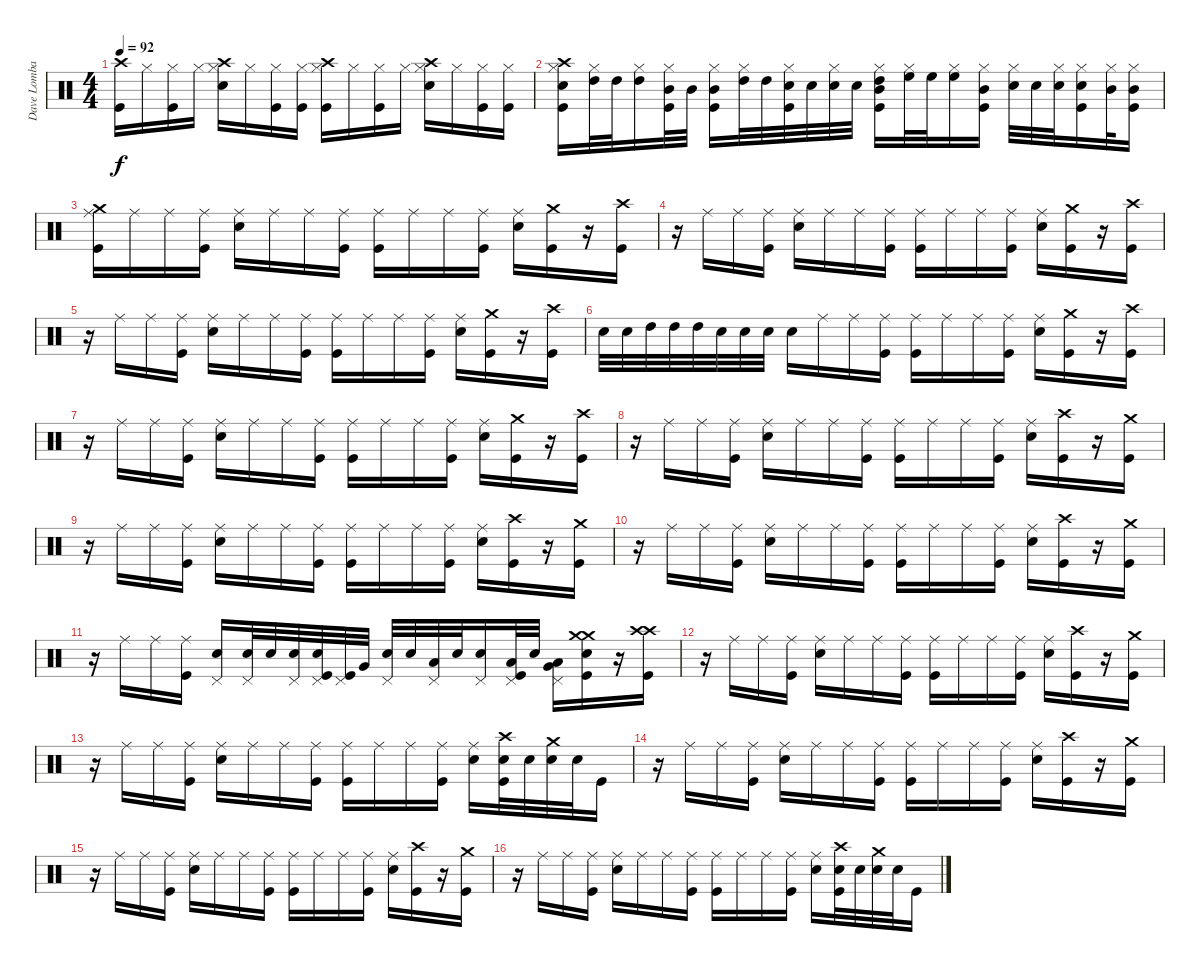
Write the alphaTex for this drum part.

\track ("Dave Lombardo" "Dave Lomba") {instrument percussion}
\staff {score}
\articulation defaults
\ts (4 4)
\tempo 92
\clef neutral
\ks c
("Crash high (hit)" "Kick (hit)").16{dy f} "Hi-Hat (closed)".16 ("Hi-Hat (closed)" "Kick (hit)").16 "Hi-Hat (closed)".16 ("Crash high (hit)" "Hi-Hat (closed)" "Snare (hit) 2").16 "Hi-Hat (closed)".16 ("Hi-Hat (closed)" "Kick (hit)").16 ("Hi-Hat (closed)" "Kick (hit)").16 ("Crash high (hit)" "Hi-Hat (closed)" "Kick (hit)").16 "Hi-Hat (closed)".16 ("Hi-Hat (closed)" "Kick (hit)").16 "Hi-Hat (closed)".16 ("Crash high (hit)" "Hi-Hat (closed)" "Snare (hit) 2").16 "Hi-Hat (closed)".16 ("Hi-Hat (closed)" "Kick (hit)").16 ("Hi-Hat (closed)" "Kick (hit)").16 |
("Crash high (hit)" "Hi-Hat (closed)" "Kick (hit)" "Snare (hit) 2").16 ("Hi-Hat (closed)" "High Tom (hit)").32 "High Tom (hit)".32 ("Hi-Hat (closed)" "High Tom (hit)").16 ("Hi-Hat (closed)" "Kick (hit)" "Mid Tom (hit)").32 "Mid Tom (hit)".32 ("Hi-Hat (closed)" "Kick (hit)" "Mid Tom (hit)").16 ("Hi-Hat (closed)" "High Tom (hit)").32 "High Tom (hit)".32 ("Hi-Hat (closed)" "Kick (hit)" "Snare (hit) 2").32 "Snare (hit) 2".32 ("Hi-Hat (closed)" "Snare (hit) 2").32 "Snare (hit) 2".32 ("Hi-Hat (closed)" "Kick (hit)" "Mid Tom (hit)" "High Tom (hit)").16 ("Hi-Hat (closed)" "High Floor Tom (hit)").32 "High Floor Tom (hit)".32 ("Hi-Hat (closed)" "High Floor Tom (hit)").16 ("Hi-Hat (closed)" "Kick (hit)" "Mid Tom (hit)").16 ("Hi-Hat (closed)" "Snare (hit) 2").32 "Snare (hit) 2".32 ("Hi-Hat (closed)" "Snare (hit) 2").32 ("Hi-Hat (closed)" "Kick (hit)" "Snare (hit) 2").16 ("Hi-Hat (closed)" "Mid Tom (hit)").32 ("Hi-Hat (closed)" "Kick (hit)" "Mid Tom (hit)").16 |
("Crash medium (hit)" "Ride (middle)" "Kick (hit)").16 "Ride (middle)".16 "Ride (middle)".16 ("Ride (middle)" "Kick (hit)").16 ("Ride (middle)" "Snare (hit) 2").16 "Ride (middle)".16 "Ride (middle)".16 ("Ride (middle)" "Kick (hit)").16 ("Ride (middle)" "Kick (hit)").16 "Ride (middle)".16 "Ride (middle)".16 ("Ride (middle)" "Kick (hit)").16 ("Ride (middle)" "Snare (hit) 2").16 ("Kick (hit)" "Crash medium (hit)").16 r.16 ("Crash high (hit)" "Kick (hit)").16 |
r.16 "Ride (middle)".16 "Ride (middle)".16 ("Ride (middle)" "Kick (hit)").16 ("Ride (middle)" "Snare (hit) 2").16 "Ride (middle)".16 "Ride (middle)".16 ("Ride (middle)" "Kick (hit)").16 ("Ride (middle)" "Kick (hit)").16 "Ride (middle)".16 "Ride (middle)".16 ("Ride (middle)" "Kick (hit)").16 ("Ride (middle)" "Snare (hit) 2").16 ("Kick (hit)" "Crash medium (hit)").16 r.16 ("Crash high (hit)" "Kick (hit)").16 |
r.16 "Ride (middle)".16 "Ride (middle)".16 ("Ride (middle)" "Kick (hit)").16 ("Ride (middle)" "Snare (hit) 2").16 "Ride (middle)".16 "Ride (middle)".16 ("Ride (middle)" "Kick (hit)").16 ("Ride (middle)" "Kick (hit)").16 "Ride (middle)".16 "Ride (middle)".16 ("Ride (middle)" "Kick (hit)").16 ("Ride (middle)" "Snare (hit) 2").16 ("Kick (hit)" "Crash medium (hit)").16 r.16 ("Crash high (hit)" "Kick (hit)").16 |
"Snare (hit) 2".32 "Snare (hit) 2".32 "High Tom (hit)".32 "High Tom (hit)".32 "High Tom (hit)".32 "Snare (hit) 2".32 "Snare (hit) 2".32 "Snare (hit) 2".32 "Snare (hit) 2".16 "Ride (middle)".16 "Ride (middle)".16 ("Ride (middle)" "Kick (hit)").16 ("Ride (middle)" "Kick (hit)").16 "Ride (middle)".16 "Ride (middle)".16 ("Ride (middle)" "Kick (hit)").16 ("Ride (middle)" "Snare (hit) 2").16 ("Kick (hit)" "Crash medium (hit)").16 r.16 ("Crash high (hit)" "Kick (hit)").16 |
r.16 "Ride (middle)".16 "Ride (middle)".16 ("Ride (middle)" "Kick (hit)").16 ("Ride (middle)" "Snare (hit) 2").16 "Ride (middle)".16 "Ride (middle)".16 ("Ride (middle)" "Kick (hit)").16 ("Ride (middle)" "Kick (hit)").16 "Ride (middle)".16 "Ride (middle)".16 ("Ride (middle)" "Kick (hit)").16 ("Ride (middle)" "Snare (hit) 2").16 ("Kick (hit)" "Crash medium (hit)").16 r.16 ("Crash high (hit)" "Kick (hit)").16 |
r.16 "Ride (middle)".16 "Ride (middle)".16 ("Ride (middle)" "Kick (hit)").16 ("Ride (middle)" "Snare (hit) 2").16 "Ride (middle)".16 "Ride (middle)".16 ("Ride (middle)" "Kick (hit)").16 ("Ride (middle)" "Kick (hit)").16 "Ride (middle)".16 "Ride (middle)".16 ("Ride (middle)" "Kick (hit)").16 ("Ride (middle)" "Snare (hit) 2").16 ("Crash high (hit)" "Kick (hit)").16 r.16 ("Kick (hit)" "Crash medium (hit)").16 |
r.16 "Ride (middle)".16 "Ride (middle)".16 ("Ride (middle)" "Kick (hit)").16 ("Ride (middle)" "Snare (hit) 2").16 "Ride (middle)".16 "Ride (middle)".16 ("Ride (middle)" "Kick (hit)").16 ("Ride (middle)" "Kick (hit)").16 "Ride (middle)".16 "Ride (middle)".16 ("Ride (middle)" "Kick (hit)").16 ("Ride (middle)" "Snare (hit) 2").16 ("Crash high (hit)" "Kick (hit)").16 r.16 ("Kick (hit)" "Crash medium (hit)").16 |
r.16 "Ride (middle)".16 "Ride (middle)".16 ("Ride (middle)" "Kick (hit)").16 ("Ride (middle)" "Snare (hit) 2").16 "Ride (middle)".16 "Ride (middle)".16 ("Ride (middle)" "Kick (hit)").16 ("Ride (middle)" "Kick (hit)").16 "Ride (middle)".16 "Ride (middle)".16 ("Ride (middle)" "Kick (hit)").16 ("Ride (middle)" "Snare (hit) 2").16 ("Crash high (hit)" "Kick (hit)").16 r.16 ("Kick (hit)" "Crash medium (hit)").16 |
r.16 "Ride (middle)".16 "Ride (middle)".16 ("Ride (middle)" "Kick (hit)").16 ("Pedal Hi-Hat (hit)" "Snare (hit) 2").16 ("Pedal Hi-Hat (hit)" "Snare (hit) 2").32 "Snare (hit) 2".32 ("Pedal Hi-Hat (hit)" "Snare (hit) 2").32 ("Pedal Hi-Hat (hit)" "Kick (hit)" "Snare (hit) 2").32 ("Pedal Hi-Hat (hit)" "Kick (hit)").32 "Very Low Tom (hit)".32 ("Pedal Hi-Hat (hit)" "Snare (hit) 2").32 "Snare (hit) 2".32 ("Pedal Hi-Hat (hit)" "Low Tom (hit)").32 "Snare (hit) 2".32 ("Pedal Hi-Hat (hit)" "Snare (hit) 2").16 ("Pedal Hi-Hat (hit)" "Kick (hit)" "Low Tom (hit)").32 "Snare (hit) 2".32 ("Pedal Hi-Hat (hit)" "Very Low Tom (hit)" "Low Tom (hit)").16 ("Crash medium (hit)" "Kick (hit)" "Snare (hit) 2" "Crash medium (hit)").16 r.16 ("Crash high (hit)" "Kick (hit)" "Crash high (hit)").16 |
r.16 "Ride (middle)".16 "Ride (middle)".16 ("Ride (middle)" "Kick (hit)").16 ("Ride (middle)" "Snare (hit) 2").16 "Ride (middle)".16 "Ride (middle)".16 ("Ride (middle)" "Kick (hit)").16 ("Ride (middle)" "Kick (hit)").16 "Ride (middle)".16 "Ride (middle)".16 ("Ride (middle)" "Kick (hit)").16 ("Ride (middle)" "Snare (hit) 2").16 ("Crash high (hit)" "Kick (hit)").16 r.16 ("Kick (hit)" "Crash medium (hit)").16 |
r.16 "Ride (middle)".16 "Ride (middle)".16 ("Ride (middle)" "Kick (hit)").16 ("Ride (middle)" "Snare (hit) 2").16 "Ride (middle)".16 "Ride (middle)".16 ("Ride (middle)" "Kick (hit)").16 ("Ride (middle)" "Kick (hit)").16 "Ride (middle)".16 "Ride (middle)".16 ("Ride (middle)" "Kick (hit)").16 ("Ride (middle)" "Snare (hit) 2").16 ("Crash high (hit)" "Kick (hit)" "Snare (hit) 2").32 "Snare (hit) 2".32 ("Snare (hit) 2" "Crash medium (hit)").32 "Snare (hit) 2".32 "Kick (hit)".16 |
r.16 "Ride (middle)".16 "Ride (middle)".16 ("Ride (middle)" "Kick (hit)").16 ("Ride (middle)" "Snare (hit) 2").16 "Ride (middle)".16 "Ride (middle)".16 ("Ride (middle)" "Kick (hit)").16 ("Ride (middle)" "Kick (hit)").16 "Ride (middle)".16 "Ride (middle)".16 ("Ride (middle)" "Kick (hit)").16 ("Ride (middle)" "Snare (hit) 2").16 ("Crash high (hit)" "Kick (hit)").16 r.16 ("Kick (hit)" "Crash medium (hit)").16 |
r.16 "Ride (middle)".16 "Ride (middle)".16 ("Ride (middle)" "Kick (hit)").16 ("Ride (middle)" "Snare (hit) 2").16 "Ride (middle)".16 "Ride (middle)".16 ("Ride (middle)" "Kick (hit)").16 ("Ride (middle)" "Kick (hit)").16 "Ride (middle)".16 "Ride (middle)".16 ("Ride (middle)" "Kick (hit)").16 ("Ride (middle)" "Snare (hit) 2").16 ("Crash high (hit)" "Kick (hit)").16 r.16 ("Kick (hit)" "Crash medium (hit)").16 |
r.16 "Ride (middle)".16 "Ride (middle)".16 ("Ride (middle)" "Kick (hit)").16 ("Ride (middle)" "Snare (hit) 2").16 "Ride (middle)".16 "Ride (middle)".16 ("Ride (middle)" "Kick (hit)").16 ("Ride (middle)" "Kick (hit)").16 "Ride (middle)".16 "Ride (middle)".16 ("Ride (middle)" "Kick (hit)").16 ("Ride (middle)" "Snare (hit) 2").16 ("Crash high (hit)" "Kick (hit)" "Snare (hit) 2").32 "Snare (hit) 2".32 ("Snare (hit) 2" "Crash medium (hit)").32 "Snare (hit) 2".32 "Kick (hit)".16
